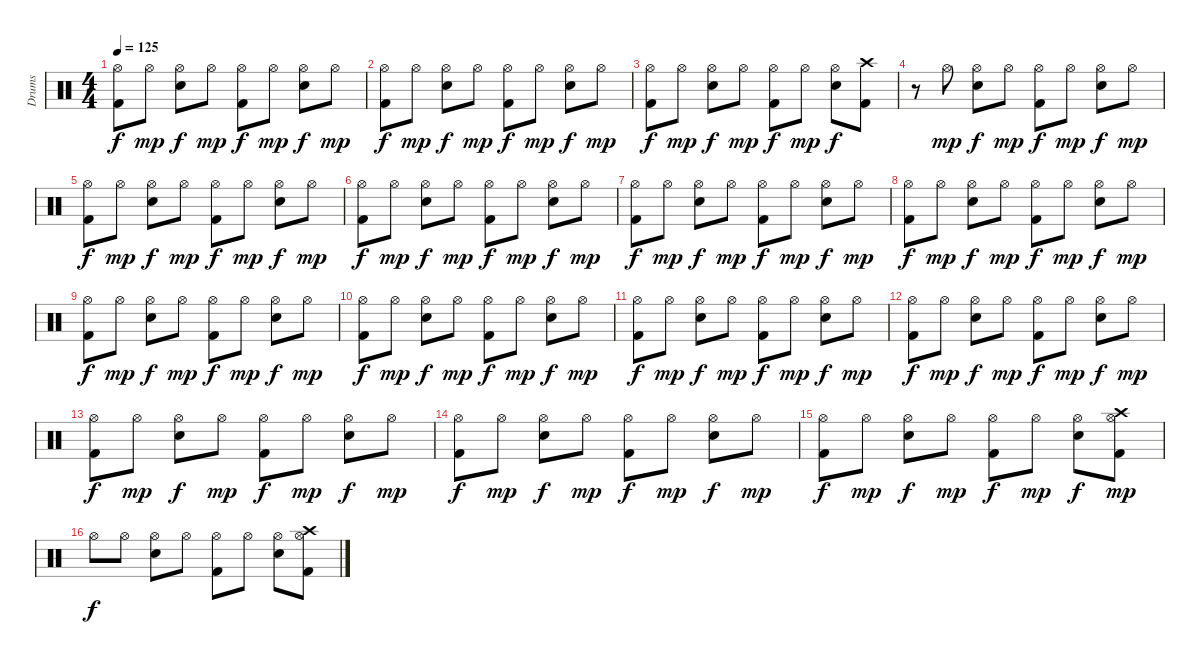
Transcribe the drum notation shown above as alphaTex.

\track ("Drums" "Drums") {instrument percussion}
\staff {score}
\articulation defaults
\ts (4 4)
\tempo 125
\clef neutral
\ks c
("Kick (hit) 2" "Hi-Hat (open)").8{dy f} "Hi-Hat (open)".8{dy mp} ("Electric Snare (hit)" "Hi-Hat (open)").8{dy f} "Hi-Hat (open)".8{dy mp} ("Kick (hit) 2" "Hi-Hat (open)").8{dy f} "Hi-Hat (open)".8{dy mp} ("Electric Snare (hit)" "Hi-Hat (open)").8{dy f} "Hi-Hat (open)".8{dy mp} |
("Kick (hit) 2" "Hi-Hat (open)").8{dy f} "Hi-Hat (open)".8{dy mp} ("Electric Snare (hit)" "Hi-Hat (open)").8{dy f} "Hi-Hat (open)".8{dy mp} ("Kick (hit) 2" "Hi-Hat (open)").8{dy f} "Hi-Hat (open)".8{dy mp} ("Electric Snare (hit)" "Hi-Hat (open)").8{dy f} "Hi-Hat (open)".8{dy mp} |
("Kick (hit) 2" "Hi-Hat (open)").8{dy f} "Hi-Hat (open)".8{dy mp} ("Electric Snare (hit)" "Hi-Hat (open)").8{dy f} "Hi-Hat (open)".8{dy mp} ("Kick (hit) 2" "Hi-Hat (open)").8{dy f} "Hi-Hat (open)".8{dy mp} ("Electric Snare (hit)" "Hi-Hat (open)").8{dy f} ("Kick (hit) 2" "Crash high (hit)").8 |
r.8 "Hi-Hat (open)".8{dy mp} ("Electric Snare (hit)" "Hi-Hat (open)").8{dy f} "Hi-Hat (open)".8{dy mp} ("Kick (hit) 2" "Hi-Hat (open)").8{dy f} "Hi-Hat (open)".8{dy mp} ("Electric Snare (hit)" "Hi-Hat (open)").8{dy f} "Hi-Hat (open)".8{dy mp} |
("Kick (hit) 2" "Hi-Hat (open)").8{dy f} "Hi-Hat (open)".8{dy mp} ("Electric Snare (hit)" "Hi-Hat (open)").8{dy f} "Hi-Hat (open)".8{dy mp} ("Kick (hit) 2" "Hi-Hat (open)").8{dy f} "Hi-Hat (open)".8{dy mp} ("Electric Snare (hit)" "Hi-Hat (open)").8{dy f} "Hi-Hat (open)".8{dy mp} |
("Kick (hit) 2" "Hi-Hat (open)").8{dy f} "Hi-Hat (open)".8{dy mp} ("Electric Snare (hit)" "Hi-Hat (open)").8{dy f} "Hi-Hat (open)".8{dy mp} ("Kick (hit) 2" "Hi-Hat (open)").8{dy f} "Hi-Hat (open)".8{dy mp} ("Electric Snare (hit)" "Hi-Hat (open)").8{dy f} "Hi-Hat (open)".8{dy mp} |
("Kick (hit) 2" "Hi-Hat (open)").8{dy f} "Hi-Hat (open)".8{dy mp} ("Electric Snare (hit)" "Hi-Hat (open)").8{dy f} "Hi-Hat (open)".8{dy mp} ("Kick (hit) 2" "Hi-Hat (open)").8{dy f} "Hi-Hat (open)".8{dy mp} ("Electric Snare (hit)" "Hi-Hat (open)").8{dy f} "Hi-Hat (open)".8{dy mp} |
("Kick (hit) 2" "Hi-Hat (open)").8{dy f} "Hi-Hat (open)".8{dy mp} ("Electric Snare (hit)" "Hi-Hat (open)").8{dy f} "Hi-Hat (open)".8{dy mp} ("Kick (hit) 2" "Hi-Hat (open)").8{dy f} "Hi-Hat (open)".8{dy mp} ("Electric Snare (hit)" "Hi-Hat (open)").8{dy f} "Hi-Hat (open)".8{dy mp} |
("Kick (hit) 2" "Hi-Hat (open)").8{dy f} "Hi-Hat (open)".8{dy mp} ("Electric Snare (hit)" "Hi-Hat (open)").8{dy f} "Hi-Hat (open)".8{dy mp} ("Kick (hit) 2" "Hi-Hat (open)").8{dy f} "Hi-Hat (open)".8{dy mp} ("Electric Snare (hit)" "Hi-Hat (open)").8{dy f} "Hi-Hat (open)".8{dy mp} |
("Kick (hit) 2" "Hi-Hat (open)").8{dy f} "Hi-Hat (open)".8{dy mp} ("Electric Snare (hit)" "Hi-Hat (open)").8{dy f} "Hi-Hat (open)".8{dy mp} ("Kick (hit) 2" "Hi-Hat (open)").8{dy f} "Hi-Hat (open)".8{dy mp} ("Electric Snare (hit)" "Hi-Hat (open)").8{dy f} "Hi-Hat (open)".8{dy mp} |
("Kick (hit) 2" "Hi-Hat (open)").8{dy f} "Hi-Hat (open)".8{dy mp} ("Electric Snare (hit)" "Hi-Hat (open)").8{dy f} "Hi-Hat (open)".8{dy mp} ("Kick (hit) 2" "Hi-Hat (open)").8{dy f} "Hi-Hat (open)".8{dy mp} ("Electric Snare (hit)" "Hi-Hat (open)").8{dy f} "Hi-Hat (open)".8{dy mp} |
("Kick (hit) 2" "Hi-Hat (open)").8{dy f} "Hi-Hat (open)".8{dy mp} ("Electric Snare (hit)" "Hi-Hat (open)").8{dy f} "Hi-Hat (open)".8{dy mp} ("Kick (hit) 2" "Hi-Hat (open)").8{dy f} "Hi-Hat (open)".8{dy mp} ("Electric Snare (hit)" "Hi-Hat (open)").8{dy f} "Hi-Hat (open)".8{dy mp} |
("Kick (hit) 2" "Hi-Hat (open)").8{dy f} "Hi-Hat (open)".8{dy mp} ("Electric Snare (hit)" "Hi-Hat (open)").8{dy f} "Hi-Hat (open)".8{dy mp} ("Kick (hit) 2" "Hi-Hat (open)").8{dy f} "Hi-Hat (open)".8{dy mp} ("Electric Snare (hit)" "Hi-Hat (open)").8{dy f} "Hi-Hat (open)".8{dy mp} |
("Kick (hit) 2" "Hi-Hat (open)").8{dy f} "Hi-Hat (open)".8{dy mp} ("Electric Snare (hit)" "Hi-Hat (open)").8{dy f} "Hi-Hat (open)".8{dy mp} ("Kick (hit) 2" "Hi-Hat (open)").8{dy f} "Hi-Hat (open)".8{dy mp} ("Electric Snare (hit)" "Hi-Hat (open)").8{dy f} "Hi-Hat (open)".8{dy mp} |
("Kick (hit) 2" "Hi-Hat (open)").8{dy f} "Hi-Hat (open)".8{dy mp} ("Electric Snare (hit)" "Hi-Hat (open)").8{dy f} "Hi-Hat (open)".8{dy mp} ("Kick (hit) 2" "Hi-Hat (open)").8{dy f} "Hi-Hat (open)".8{dy mp} ("Electric Snare (hit)" "Hi-Hat (open)").8{dy f} ("Kick (hit) 2" "Hi-Hat (open)" "Crash high (hit)").8{dy mp} |
"Hi-Hat (open)".8{dy f} "Hi-Hat (open)".8 ("Electric Snare (hit)" "Hi-Hat (open)").8 "Hi-Hat (open)".8 ("Kick (hit) 2" "Hi-Hat (open)").8 "Hi-Hat (open)".8 ("Electric Snare (hit)" "Hi-Hat (open)").8 ("Kick (hit) 2" "Hi-Hat (open)" "Crash high (hit)").8
